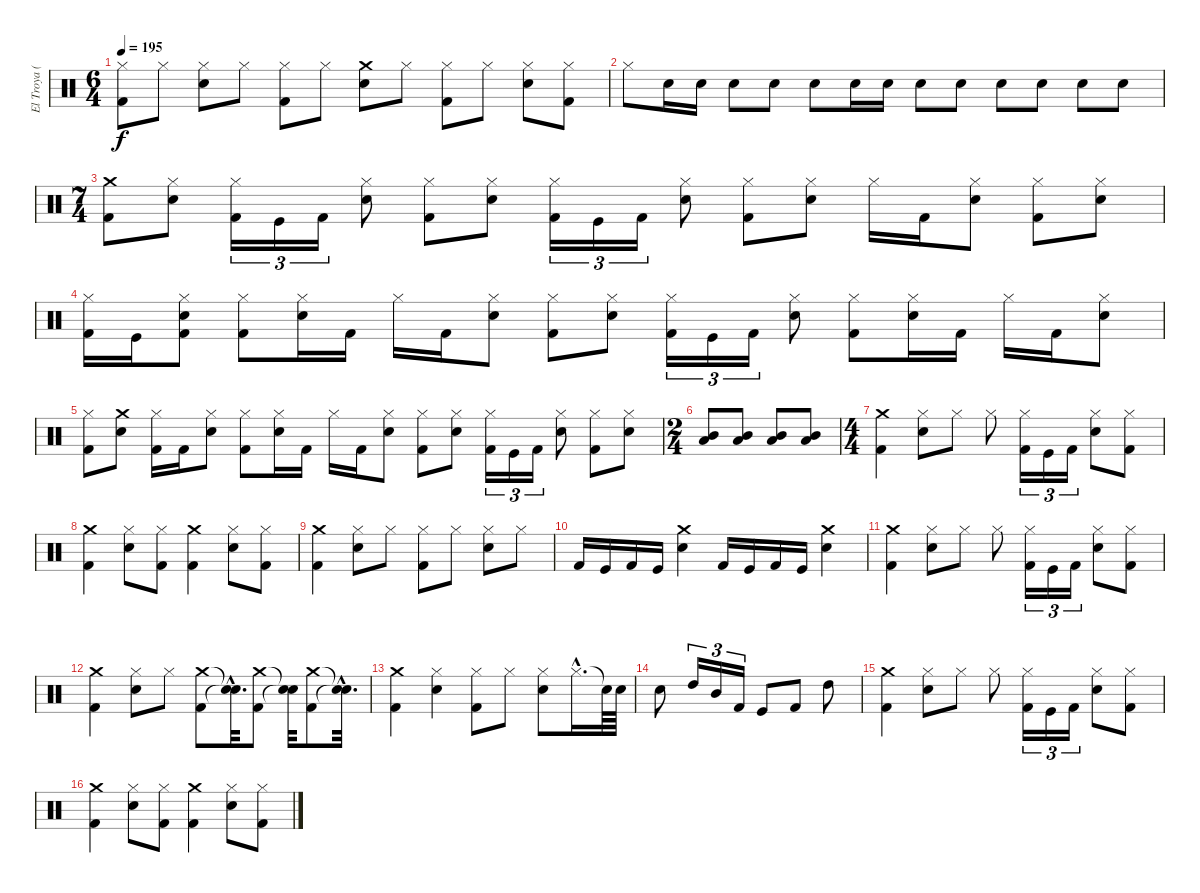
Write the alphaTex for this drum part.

\track ("El Troya (premio)" "El Troya (") {instrument percussion}
\staff {score}
\articulation defaults
\ts (6 4)
\tempo 195
\clef neutral
\ks c
("Hi-Hat (closed)" "Kick (hit) 2").8{dy f} "Hi-Hat (closed)".8 ("Snare (hit) 2" "Hi-Hat (closed)").8 "Hi-Hat (closed)".8 ("Hi-Hat (closed)" "Kick (hit) 2").8 "Hi-Hat (closed)".8 ("Crash medium (hit)" "Snare (hit) 2").8 "Hi-Hat (closed)".8 ("Hi-Hat (closed)" "Kick (hit) 2").8 "Hi-Hat (closed)".8 ("Snare (hit) 2" "Hi-Hat (closed)").8 ("Kick (hit) 2" "Hi-Hat (closed)").8 |
"Hi-Hat (closed)".8 "Snare (hit) 2".16 "Snare (hit) 2".16 "Snare (hit) 2".8 "Snare (hit) 2".8 "Snare (hit) 2".8 "Snare (hit) 2".16 "Snare (hit) 2".16 "Snare (hit) 2".8 "Snare (hit) 2".8 "Snare (hit) 2".8 "Snare (hit) 2".8 "Snare (hit) 2".8 "Snare (hit) 2".8 |
\ts (7 4)
("Crash medium (hit)" "Kick (hit) 2").8 ("Snare (hit) 2" "Hi-Hat (closed)").8 ("Hi-Hat (closed)" "Kick (hit) 2").16{tu (3 2)} "Kick (hit)".16{tu (3 2)} "Kick (hit) 2".16{tu (3 2)} ("Snare (hit) 2" "Hi-Hat (closed)").8 ("Hi-Hat (closed)" "Kick (hit) 2").8 ("Snare (hit) 2" "Hi-Hat (closed)").8 ("Hi-Hat (closed)" "Kick (hit) 2").16{tu (3 2)} "Kick (hit)".16{tu (3 2)} "Kick (hit) 2".16{tu (3 2)} ("Snare (hit) 2" "Hi-Hat (closed)").8 ("Hi-Hat (closed)" "Kick (hit) 2").8 ("Snare (hit) 2" "Hi-Hat (closed)").8 "Hi-Hat (closed)".16 "Kick (hit) 2".16 ("Snare (hit) 2" "Hi-Hat (closed)").8 ("Hi-Hat (closed)" "Kick (hit) 2").8 ("Snare (hit) 2" "Hi-Hat (closed)").8 |
("Hi-Hat (closed)" "Kick (hit) 2").16 "Kick (hit)".16 ("Snare (hit) 2" "Hi-Hat (closed)" "Kick (hit) 2").8 ("Hi-Hat (closed)" "Kick (hit) 2").8 ("Snare (hit) 2" "Hi-Hat (closed)").16 "Kick (hit) 2".16 "Hi-Hat (closed)".16 "Kick (hit) 2".16 ("Snare (hit) 2" "Hi-Hat (closed)").8 ("Hi-Hat (closed)" "Kick (hit) 2").8 ("Snare (hit) 2" "Hi-Hat (closed)").8 ("Hi-Hat (closed)" "Kick (hit) 2").16{tu (3 2)} "Kick (hit)".16{tu (3 2)} "Kick (hit) 2".16{tu (3 2)} ("Snare (hit) 2" "Hi-Hat (closed)").8 ("Hi-Hat (closed)" "Kick (hit) 2").8 ("Snare (hit) 2" "Hi-Hat (closed)").16 "Kick (hit) 2".16 "Hi-Hat (closed)".16 "Kick (hit) 2".16 ("Snare (hit) 2" "Hi-Hat (closed)").8 |
("Kick (hit) 2" "Hi-Hat (closed)").8 ("Snare (hit) 2" "Crash medium (hit)").8 ("Hi-Hat (closed)" "Kick (hit) 2").16 "Kick (hit) 2".16 ("Snare (hit) 2" "Hi-Hat (closed)").8 ("Hi-Hat (closed)" "Kick (hit) 2").8 ("Snare (hit) 2" "Hi-Hat (closed)").16 "Kick (hit) 2".16 "Hi-Hat (closed)".16 "Kick (hit) 2".16 ("Snare (hit) 2" "Hi-Hat (closed)").8 ("Hi-Hat (closed)" "Kick (hit) 2").8 ("Snare (hit) 2" "Hi-Hat (closed)").8 ("Hi-Hat (closed)" "Kick (hit) 2").16{tu (3 2)} "Kick (hit)".16{tu (3 2)} "Kick (hit) 2".16{tu (3 2)} ("Snare (hit) 2" "Hi-Hat (closed)").8 ("Hi-Hat (closed)" "Kick (hit) 2").8 ("Snare (hit) 2" "Hi-Hat (closed)").8 |
\ts (2 4)
("Mid Tom (hit)" "Low Tom (hit)").8 ("Low Tom (hit)" "Mid Tom (hit)").8 ("Mid Tom (hit)" "Low Tom (hit)").8 ("Low Tom (hit)" "Mid Tom (hit)").8 |
\ts (4 4)
("Kick (hit) 2" "Crash medium (hit)").4 ("Hi-Hat (closed)" "Snare (hit) 2").8 "Hi-Hat (closed)".8 "Hi-Hat (closed)".8 ("Hi-Hat (closed)" "Kick (hit) 2").16{tu (3 2)} "Kick (hit)".16{tu (3 2)} "Kick (hit) 2".16{tu (3 2)} ("Snare (hit) 2" "Hi-Hat (closed)").8 ("Hi-Hat (closed)" "Kick (hit) 2").8 |
("Kick (hit) 2" "Crash medium (hit)").4 ("Hi-Hat (closed)" "Snare (hit) 2").8 ("Kick (hit) 2" "Hi-Hat (closed)").8 ("Crash medium (hit)" "Kick (hit) 2").4 ("Hi-Hat (closed)" "Snare (hit) 2").8 ("Kick (hit) 2" "Hi-Hat (closed)").8 |
("Kick (hit) 2" "Crash medium (hit)").4 ("Hi-Hat (closed)" "Snare (hit) 2").8 "Hi-Hat (closed)".8 ("Hi-Hat (closed)" "Kick (hit) 2").8 "Hi-Hat (closed)".8 ("Snare (hit) 2" "Hi-Hat (closed)").8 "Hi-Hat (closed)".8 |
"Kick (hit) 2".16 "Kick (hit)".16 "Kick (hit) 2".16 "Kick (hit)".16 ("Crash medium (hit)" "Snare (hit) 2").4 "Kick (hit) 2".16 "Kick (hit)".16 "Kick (hit) 2".16 "Kick (hit)".16 ("Snare (hit) 2" "Crash medium (hit)").4 |
("Kick (hit) 2" "Crash medium (hit)").4 ("Snare (hit) 2" "Hi-Hat (closed)").8 "Hi-Hat (closed)".8 "Hi-Hat (closed)".8 ("Kick (hit) 2" "Hi-Hat (closed)").16{tu (3 2)} "Kick (hit)".16{tu (3 2)} "Kick (hit) 2".16{tu (3 2)} ("Snare (hit) 2" "Hi-Hat (closed)").8 ("Kick (hit) 2" "Hi-Hat (closed)").8 |
("Kick (hit) 2" "Crash medium (hit)").4 ("Hi-Hat (closed)" "Snare (hit) 2").8 "Hi-Hat (closed)".8 ("Kick (hit) 2" "Crash medium (hit)").8 ("Snare (hit)"{hac t} "Snare (hit)"{hac t}).32{d} ("Kick (hit) 2" "Crash medium (hit)").8 ("Snare (hit)"{t} "Snare (hit)"{t}).32 ("Kick (hit) 2" "Crash medium (hit)").8 ("Snare (hit)"{hac t} "Snare (hit)"{hac t}).32{d} |
("Kick (hit) 2" "Crash medium (hit)").4 ("Hi-Hat (closed)" "Snare (hit) 2").4 ("Hi-Hat (closed)" "Kick (hit) 2").8 "Hi-Hat (closed)".8 ("Snare (hit) 2" "Hi-Hat (closed)").8 "Hi-Hat (closed)"{hac}.16{d} "Snare (hit)"{t}.64 "Snare (hit) 2".64 |
"Snare (hit) 2".8 "High Tom (hit)".16{tu (3 2)} "Mid Tom (hit)".16{tu (3 2)} "Kick (hit) 2".16{tu (3 2)} "Kick (hit)".8 "Kick (hit) 2".8 "High Tom (hit)".8 |
("Kick (hit) 2" "Crash medium (hit)").4 ("Snare (hit) 2" "Hi-Hat (closed)").8 "Hi-Hat (closed)".8 "Hi-Hat (closed)".8 ("Kick (hit) 2" "Hi-Hat (closed)").16{tu (3 2)} "Kick (hit)".16{tu (3 2)} "Kick (hit) 2".16{tu (3 2)} ("Snare (hit) 2" "Hi-Hat (closed)").8 ("Kick (hit) 2" "Hi-Hat (closed)").8 |
("Kick (hit) 2" "Crash medium (hit)").4 ("Hi-Hat (closed)" "Snare (hit) 2").8 ("Kick (hit) 2" "Hi-Hat (closed)").8 ("Crash medium (hit)" "Kick (hit) 2").4 ("Hi-Hat (closed)" "Snare (hit) 2").8 ("Kick (hit) 2" "Hi-Hat (closed)").8
